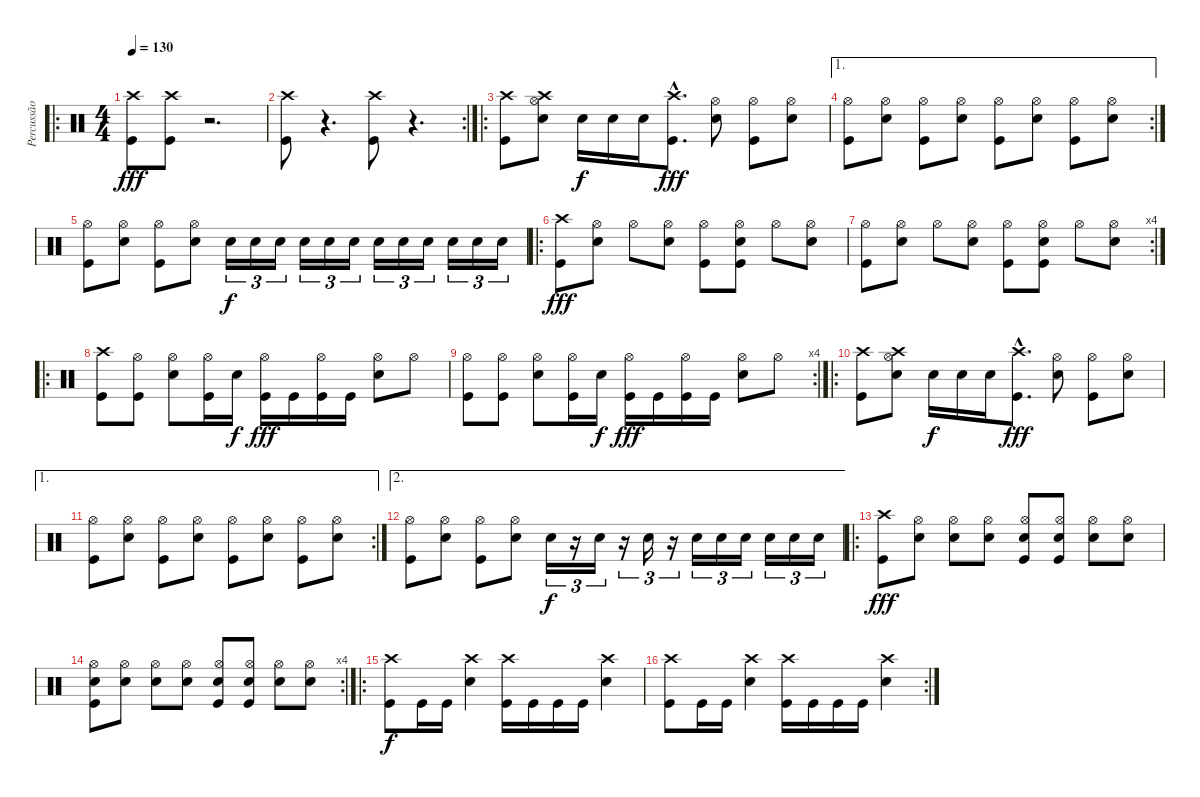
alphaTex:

\track ("Percussão" "Percussão") {instrument percussion}
\staff {score}
\articulation defaults
\ro
\ts (4 4)
\tempo 130
\clef neutral
\ks c
("Crash high (hit)" "Kick (hit)").8{dy fff volume 16} ("Crash high (hit)" "Kick (hit)").8 r.2{d} |
\rc 2
("Crash high (hit)" "Kick (hit)").8{volume 16} r.4{d} ("Crash high (hit)" "Kick (hit)").8{volume 16} r.4{d} |
\ro
("Crash high (hit)" "Kick (hit)").8{volume 16} ("Crash high (hit)" "Hi-Hat (open)" "Snare (hit) 2").8 "Snare (hit) 2".16{dy f} "Snare (hit) 2".16 "Snare (hit) 2".16 ("Crash high (hit)"{hac} "Kick (hit)"{hac}).8{d dy fff} ("Hi-Hat (open)" "Snare (hit) 2").8 ("Hi-Hat (open)" "Kick (hit)").8 ("Hi-Hat (open)" "Snare (hit) 2").8 |
\ae 1
\rc 2
("Hi-Hat (open)" "Kick (hit)").8 ("Hi-Hat (open)" "Snare (hit) 2").8 ("Hi-Hat (open)" "Kick (hit)").8 ("Hi-Hat (open)" "Snare (hit) 2").8 ("Hi-Hat (open)" "Kick (hit)").8 ("Hi-Hat (open)" "Snare (hit) 2").8 ("Hi-Hat (open)" "Kick (hit)").8 ("Hi-Hat (open)" "Snare (hit) 2").8 |
("Hi-Hat (open)" "Kick (hit)").8 ("Hi-Hat (open)" "Snare (hit) 2").8 ("Hi-Hat (open)" "Kick (hit)").8 ("Hi-Hat (open)" "Snare (hit) 2").8 "Snare (hit) 2".16{tu (3 2) dy f} "Snare (hit) 2".16{tu (3 2)} "Snare (hit) 2".16{tu (3 2)} "Snare (hit) 2".16{tu (3 2)} "Snare (hit) 2".16{tu (3 2)} "Snare (hit) 2".16{tu (3 2)} "Snare (hit) 2".16{tu (3 2)} "Snare (hit) 2".16{tu (3 2)} "Snare (hit) 2".16{tu (3 2)} "Snare (hit) 2".16{tu (3 2)} "Snare (hit) 2".16{tu (3 2)} "Snare (hit) 2".16{tu (3 2)} |
\ro
("Crash high (hit)" "Kick (hit)").8{dy fff} ("Hi-Hat (open)" "Snare (hit) 2").8 "Hi-Hat (open)".8 ("Hi-Hat (open)" "Snare (hit) 2").8 ("Hi-Hat (open)" "Kick (hit)").8 ("Hi-Hat (open)" "Snare (hit) 2" "Kick (hit)").8 "Hi-Hat (open)".8 ("Hi-Hat (open)" "Snare (hit) 2").8 |
\rc 4
("Hi-Hat (open)" "Kick (hit)").8 ("Hi-Hat (open)" "Snare (hit) 2").8 "Hi-Hat (open)".8 ("Hi-Hat (open)" "Snare (hit) 2").8 ("Hi-Hat (open)" "Kick (hit)").8 ("Hi-Hat (open)" "Snare (hit) 2" "Kick (hit)").8 "Hi-Hat (open)".8 ("Hi-Hat (open)" "Snare (hit) 2").8 |
\ro
("Crash high (hit)" "Kick (hit)").8 ("Hi-Hat (open)" "Kick (hit)").8 ("Hi-Hat (open)" "Snare (hit) 2").8 ("Hi-Hat (open)" "Kick (hit)").16 "Snare (hit) 2".16{dy f} ("Hi-Hat (open)" "Kick (hit)").16{dy fff} "Kick (hit)".16 ("Hi-Hat (open)" "Kick (hit)").16 "Kick (hit)".16 ("Hi-Hat (open)" "Snare (hit) 2").8 "Hi-Hat (open)".8 |
\rc 4
("Hi-Hat (open)" "Kick (hit)").8 ("Hi-Hat (open)" "Kick (hit)").8 ("Hi-Hat (open)" "Snare (hit) 2").8 ("Hi-Hat (open)" "Kick (hit)").16 "Snare (hit) 2".16{dy f} ("Hi-Hat (open)" "Kick (hit)").16{dy fff} "Kick (hit)".16 ("Hi-Hat (open)" "Kick (hit)").16 "Kick (hit)".16 ("Hi-Hat (open)" "Snare (hit) 2").8 "Hi-Hat (open)".8 |
\ro
("Crash high (hit)" "Kick (hit)").8{volume 16} ("Crash high (hit)" "Hi-Hat (open)" "Snare (hit) 2").8 "Snare (hit) 2".16{dy f} "Snare (hit) 2".16 "Snare (hit) 2".16 ("Crash high (hit)"{hac} "Kick (hit)"{hac}).8{d dy fff} ("Hi-Hat (open)" "Snare (hit) 2").8 ("Hi-Hat (open)" "Kick (hit)").8 ("Hi-Hat (open)" "Snare (hit) 2").8 |
\ae 1
\rc 2
("Hi-Hat (open)" "Kick (hit)").8 ("Hi-Hat (open)" "Snare (hit) 2").8 ("Hi-Hat (open)" "Kick (hit)").8 ("Hi-Hat (open)" "Snare (hit) 2").8 ("Hi-Hat (open)" "Kick (hit)").8 ("Hi-Hat (open)" "Snare (hit) 2").8 ("Hi-Hat (open)" "Kick (hit)").8 ("Hi-Hat (open)" "Snare (hit) 2").8 |
\ae 2
("Hi-Hat (open)" "Kick (hit)").8 ("Hi-Hat (open)" "Snare (hit) 2").8 ("Hi-Hat (open)" "Kick (hit)").8 ("Hi-Hat (open)" "Snare (hit) 2").8 "Snare (hit) 2".16{tu (3 2) dy f} r.16{tu (3 2)} "Snare (hit) 2".16{tu (3 2)} r.16{tu (3 2)} "Snare (hit) 2".16{tu (3 2)} r.16{tu (3 2)} "Snare (hit) 2".16{tu (3 2)} "Snare (hit) 2".16{tu (3 2)} "Snare (hit) 2".16{tu (3 2)} "Snare (hit) 2".16{tu (3 2)} "Snare (hit) 2".16{tu (3 2)} "Snare (hit) 2".16{tu (3 2)} |
\ro
("Crash high (hit)" "Kick (hit)").8{dy fff} ("Hi-Hat (open)" "Snare (hit) 2").8 ("Hi-Hat (open)" "Snare (hit) 2").8 ("Hi-Hat (open)" "Snare (hit) 2").8 ("Hi-Hat (open)" "Snare (hit) 2" "Kick (hit)").8 ("Hi-Hat (open)" "Snare (hit) 2" "Kick (hit)").8 ("Hi-Hat (open)" "Snare (hit) 2").8 ("Hi-Hat (open)" "Snare (hit) 2").8 |
\rc 4
("Hi-Hat (open)" "Snare (hit) 2" "Kick (hit)").8 ("Hi-Hat (open)" "Snare (hit) 2").8 ("Hi-Hat (open)" "Snare (hit) 2").8 ("Hi-Hat (open)" "Snare (hit) 2").8 ("Hi-Hat (open)" "Snare (hit) 2" "Kick (hit)").8 ("Hi-Hat (open)" "Snare (hit) 2" "Kick (hit)").8 ("Hi-Hat (open)" "Snare (hit) 2").8 ("Hi-Hat (open)" "Snare (hit) 2").8 |
\ro
("Crash high (hit)" "Kick (hit)").8{dy f} "Kick (hit)".16 "Kick (hit)".16 ("Crash high (hit)" "Snare (hit) 2").4 ("Crash high (hit)" "Kick (hit)").16 "Kick (hit)".16 "Kick (hit)".16 "Kick (hit)".16 ("Crash high (hit)" "Snare (hit) 2").4 |
\rc 2
("Crash high (hit)" "Kick (hit)").8 "Kick (hit)".16 "Kick (hit)".16 ("Crash high (hit)" "Snare (hit) 2").4 ("Crash high (hit)" "Kick (hit)").16 "Kick (hit)".16 "Kick (hit)".16 "Kick (hit)".16 ("Crash high (hit)" "Snare (hit) 2").4
